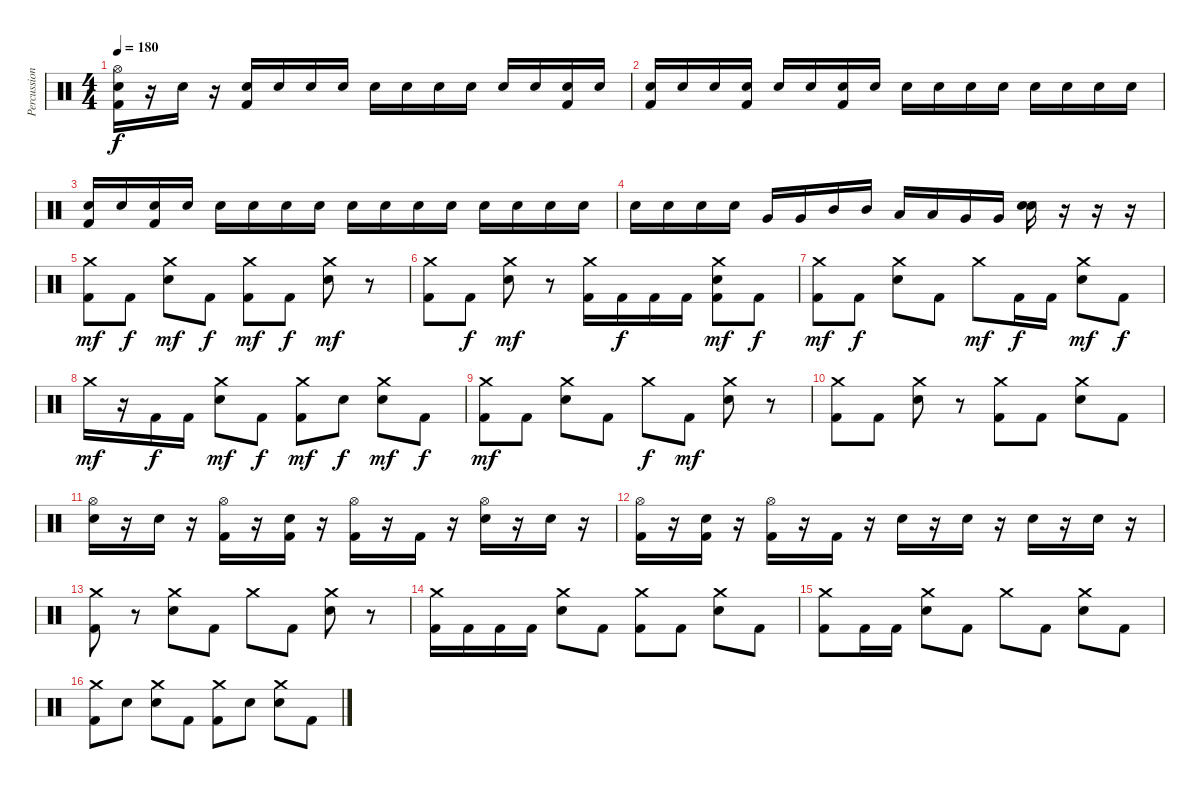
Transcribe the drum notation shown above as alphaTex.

\track ("Percussion" "Percussion") {instrument percussion}
\staff {score}
\articulation defaults
\ts (4 4)
\tempo 180
\clef neutral
\ks c
("Hi-Hat (open)" "Electric Snare (hit)" "Kick (hit) 2").16{dy f} r.16 "Electric Snare (hit)".16 r.16 ("Electric Snare (hit)" "Kick (hit) 2").16 "Electric Snare (hit)".16 "Electric Snare (hit)".16 "Electric Snare (hit)".16 "Electric Snare (hit)".16 "Electric Snare (hit)".16 "Electric Snare (hit)".16 "Electric Snare (hit)".16 "Electric Snare (hit)".16 "Electric Snare (hit)".16 ("Electric Snare (hit)" "Kick (hit) 2").16 "Electric Snare (hit)".16 |
("Electric Snare (hit)" "Kick (hit) 2").16 "Electric Snare (hit)".16 "Electric Snare (hit)".16 ("Electric Snare (hit)" "Kick (hit) 2").16 "Electric Snare (hit)".16 "Electric Snare (hit)".16 ("Electric Snare (hit)" "Kick (hit) 2").16 "Electric Snare (hit)".16 "Electric Snare (hit)".16 "Electric Snare (hit)".16 "Electric Snare (hit)".16 "Electric Snare (hit)".16 "Electric Snare (hit)".16 "Electric Snare (hit)".16 "Electric Snare (hit)".16 "Electric Snare (hit)".16 |
("Electric Snare (hit)" "Kick (hit) 2").16 "Electric Snare (hit)".16 ("Electric Snare (hit)" "Kick (hit) 2").16 "Electric Snare (hit)".16 "Electric Snare (hit)".16 "Electric Snare (hit)".16 "Electric Snare (hit)".16 "Electric Snare (hit)".16 "Electric Snare (hit)".16 "Electric Snare (hit)".16 "Electric Snare (hit)".16 "Electric Snare (hit)".16 "Electric Snare (hit)".16 "Electric Snare (hit)".16 "Electric Snare (hit)".16 "Electric Snare (hit)".16 |
"Electric Snare (hit)".16 "Electric Snare (hit)".16 "Electric Snare (hit)".16 "Electric Snare (hit)".16 "Very Low Tom (hit)".16 "Very Low Tom (hit)".16 "Mid Tom (hit)".16 "Mid Tom (hit)".16 "Low Tom (hit)".16 "Low Tom (hit)".16 "Very Low Tom (hit)".16 "Very Low Tom (hit)".16 ("Electric Snare (hit)" "Snare (hit) 2").16 r.16 r.16 r.16 |
("Crash medium (hit)" "Kick (hit) 2").8{dy mf} "Kick (hit) 2".8{dy f} ("Crash medium (hit)" "Electric Snare (hit)").8{dy mf} "Kick (hit) 2".8{dy f} ("Crash medium (hit)" "Kick (hit) 2").8{dy mf} "Kick (hit) 2".8{dy f} ("Crash medium (hit)" "Electric Snare (hit)").8{dy mf} r.8 |
("Crash medium (hit)" "Kick (hit) 2").8 "Kick (hit) 2".8{dy f} ("Crash medium (hit)" "Electric Snare (hit)").8{dy mf} r.8 ("Crash medium (hit)" "Kick (hit) 2").16 "Kick (hit) 2".16{dy f} "Kick (hit) 2".16 "Kick (hit) 2".16 ("Crash medium (hit)" "Electric Snare (hit)" "Kick (hit) 2").8{dy mf} "Kick (hit) 2".8{dy f} |
("Crash medium (hit)" "Kick (hit) 2").8{dy mf} "Kick (hit) 2".8{dy f} ("Crash medium (hit)" "Electric Snare (hit)").8 "Kick (hit) 2".8 "Crash medium (hit)".8{dy mf} "Kick (hit) 2".16{dy f} "Kick (hit) 2".16 ("Crash medium (hit)" "Electric Snare (hit)").8{dy mf} "Kick (hit) 2".8{dy f} |
"Crash medium (hit)".16{dy mf} r.16 "Kick (hit) 2".16{dy f} "Kick (hit) 2".16 ("Crash medium (hit)" "Electric Snare (hit)").8{dy mf} "Kick (hit) 2".8{dy f} ("Crash medium (hit)" "Kick (hit) 2").8{dy mf} "Electric Snare (hit)".8{dy f} ("Crash medium (hit)" "Electric Snare (hit)").8{dy mf} "Kick (hit) 2".8{dy f} |
("Crash medium (hit)" "Kick (hit) 2").8{dy mf} "Kick (hit) 2".8 ("Crash medium (hit)" "Electric Snare (hit)").8 "Kick (hit) 2".8 "Crash medium (hit)".8{dy f} "Kick (hit) 2".8{dy mf} ("Crash medium (hit)" "Electric Snare (hit)").8 r.8 |
("Crash medium (hit)" "Kick (hit) 2").8 "Kick (hit) 2".8 ("Crash medium (hit)" "Electric Snare (hit)").8 r.8 ("Crash medium (hit)" "Kick (hit) 2").8 "Kick (hit) 2".8 ("Crash medium (hit)" "Electric Snare (hit)").8 "Kick (hit) 2".8 |
("Hi-Hat (open)" "Electric Snare (hit)").16 r.16 "Electric Snare (hit)".16 r.16 ("Hi-Hat (open)" "Kick (hit) 2").16 r.16 ("Electric Snare (hit)" "Kick (hit) 2").16 r.16 ("Hi-Hat (open)" "Kick (hit) 2").16 r.16 "Kick (hit) 2".16 r.16 ("Hi-Hat (open)" "Electric Snare (hit)").16 r.16 "Electric Snare (hit)".16 r.16 |
("Hi-Hat (open)" "Kick (hit) 2").16 r.16 ("Electric Snare (hit)" "Kick (hit) 2").16 r.16 ("Hi-Hat (open)" "Kick (hit) 2").16 r.16 "Kick (hit) 2".16 r.16 "Electric Snare (hit)".16 r.16 "Electric Snare (hit)".16 r.16 "Electric Snare (hit)".16 r.16 "Electric Snare (hit)".16 r.16 |
("Crash medium (hit)" "Kick (hit) 2").8 r.8 ("Crash medium (hit)" "Electric Snare (hit)").8 "Kick (hit) 2".8 "Crash medium (hit)".8 "Kick (hit) 2".8 ("Crash medium (hit)" "Electric Snare (hit)").8 r.8 |
("Crash medium (hit)" "Kick (hit) 2").16 "Kick (hit) 2".16 "Kick (hit) 2".16 "Kick (hit) 2".16 ("Crash medium (hit)" "Electric Snare (hit)").8 "Kick (hit) 2".8 ("Crash medium (hit)" "Kick (hit) 2").8 "Kick (hit) 2".8 ("Crash medium (hit)" "Electric Snare (hit)").8 "Kick (hit) 2".8 |
("Crash medium (hit)" "Kick (hit) 2").8 "Kick (hit) 2".16 "Kick (hit) 2".16 ("Crash medium (hit)" "Electric Snare (hit)").8 "Kick (hit) 2".8 "Crash medium (hit)".8 "Kick (hit) 2".8 ("Crash medium (hit)" "Electric Snare (hit)").8 "Kick (hit) 2".8 |
("Crash medium (hit)" "Kick (hit) 2").8 "Electric Snare (hit)".8 ("Crash medium (hit)" "Electric Snare (hit)").8 "Kick (hit) 2".8 ("Crash medium (hit)" "Kick (hit) 2").8 "Electric Snare (hit)".8 ("Crash medium (hit)" "Electric Snare (hit)").8 "Kick (hit) 2".8
